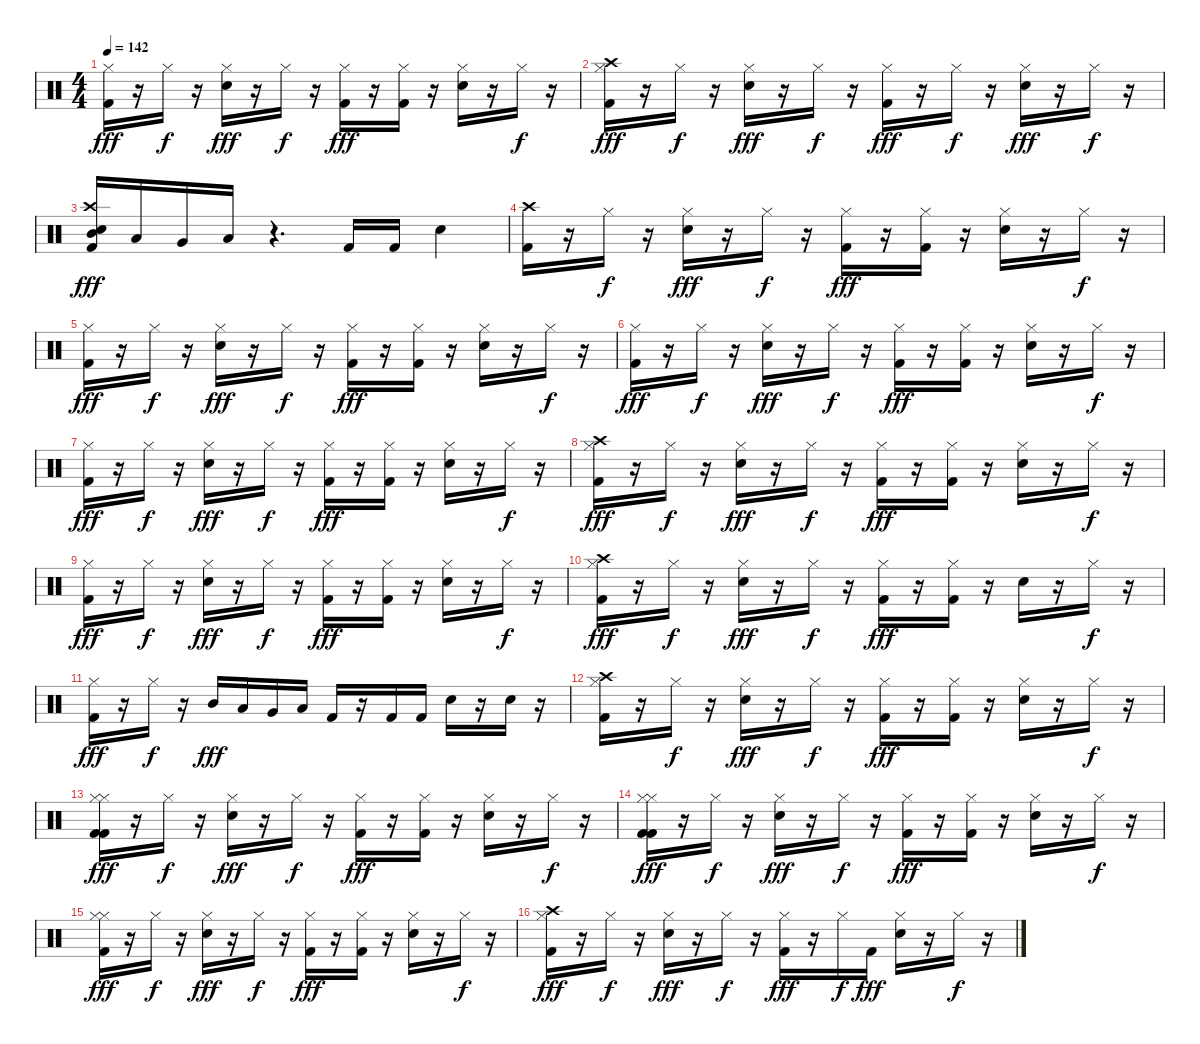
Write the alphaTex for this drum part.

\track "" {instrument percussion}
\staff {score}
\articulation defaults
\ts (4 4)
\tempo 142
\clef neutral
\ks c
("Hi-Hat (closed)" "Kick (hit) 2").16{dy fff} r.16 "Hi-Hat (closed)".16{dy f} r.16 ("Electric Snare (hit)" "Hi-Hat (closed)").16{dy fff} r.16 "Hi-Hat (closed)".16{dy f} r.16 ("Hi-Hat (closed)" "Kick (hit) 2").16{dy fff} r.16 ("Kick (hit) 2" "Hi-Hat (closed)").16 r.16 ("Electric Snare (hit)" "Hi-Hat (closed)").16 r.16 "Hi-Hat (closed)".16{dy f} r.16 |
("Hi-Hat (closed)" "Kick (hit) 2" "Crash high (hit)").16{dy fff} r.16 "Hi-Hat (closed)".16{dy f} r.16 ("Electric Snare (hit)" "Hi-Hat (closed)").16{dy fff} r.16 "Hi-Hat (closed)".16{dy f} r.16 ("Hi-Hat (closed)" "Kick (hit) 2").16{dy fff} r.16 "Hi-Hat (closed)".16{dy f} r.16 ("Electric Snare (hit)" "Hi-Hat (closed)").16{dy fff} r.16 "Hi-Hat (closed)".16{dy f} r.16 |
("Mid Tom (hit)" "Kick (hit) 2" "Crash high (hit)" "Electric Snare (hit)").16{dy fff} "Low Tom (hit)".16 "Very Low Tom (hit)".16 "Low Floor Tom (hit)".16 r.4{d} "Kick (hit) 2".16 "Kick (hit) 2".16 "Electric Snare (hit)".4 |
("Crash high (hit)" "Kick (hit) 2").16 r.16 "Hi-Hat (closed)".16{dy f} r.16 ("Hi-Hat (closed)" "Electric Snare (hit)").16{dy fff} r.16 "Hi-Hat (closed)".16{dy f} r.16 ("Hi-Hat (closed)" "Kick (hit) 2").16{dy fff} r.16 ("Kick (hit) 2" "Hi-Hat (closed)").16 r.16 ("Hi-Hat (closed)" "Electric Snare (hit)").16 r.16 "Hi-Hat (closed)".16{dy f} r.16 |
("Hi-Hat (closed)" "Kick (hit) 2").16{dy fff} r.16 "Hi-Hat (closed)".16{dy f} r.16 ("Hi-Hat (closed)" "Electric Snare (hit)").16{dy fff} r.16 "Hi-Hat (closed)".16{dy f} r.16 ("Hi-Hat (closed)" "Kick (hit) 2").16{dy fff} r.16 ("Hi-Hat (closed)" "Kick (hit) 2").16 r.16 ("Hi-Hat (closed)" "Electric Snare (hit)").16 r.16 "Hi-Hat (closed)".16{dy f} r.16 |
("Hi-Hat (closed)" "Kick (hit) 2").16{dy fff} r.16 "Hi-Hat (closed)".16{dy f} r.16 ("Hi-Hat (closed)" "Electric Snare (hit)").16{dy fff} r.16 "Hi-Hat (closed)".16{dy f} r.16 ("Hi-Hat (closed)" "Kick (hit) 2").16{dy fff} r.16 ("Kick (hit) 2" "Hi-Hat (closed)").16 r.16 ("Hi-Hat (closed)" "Electric Snare (hit)").16 r.16 "Hi-Hat (closed)".16{dy f} r.16 |
("Hi-Hat (closed)" "Kick (hit) 2").16{dy fff} r.16 "Hi-Hat (closed)".16{dy f} r.16 ("Hi-Hat (closed)" "Electric Snare (hit)").16{dy fff} r.16 "Hi-Hat (closed)".16{dy f} r.16 ("Hi-Hat (closed)" "Kick (hit) 2").16{dy fff} r.16 ("Hi-Hat (closed)" "Kick (hit) 2").16 r.16 ("Hi-Hat (closed)" "Electric Snare (hit)").16 r.16 "Hi-Hat (closed)".16{dy f} r.16 |
("Hi-Hat (closed)" "Crash high (hit)" "Kick (hit) 2").16{dy fff} r.16 "Hi-Hat (closed)".16{dy f} r.16 ("Hi-Hat (closed)" "Electric Snare (hit)").16{dy fff} r.16 "Hi-Hat (closed)".16{dy f} r.16 ("Hi-Hat (closed)" "Kick (hit) 2").16{dy fff} r.16 ("Kick (hit) 2" "Hi-Hat (closed)").16 r.16 ("Hi-Hat (closed)" "Electric Snare (hit)").16 r.16 "Hi-Hat (closed)".16{dy f} r.16 |
("Hi-Hat (closed)" "Kick (hit) 2").16{dy fff} r.16 "Hi-Hat (closed)".16{dy f} r.16 ("Hi-Hat (closed)" "Electric Snare (hit)").16{dy fff} r.16 "Hi-Hat (closed)".16{dy f} r.16 ("Hi-Hat (closed)" "Kick (hit) 2").16{dy fff} r.16 ("Hi-Hat (closed)" "Kick (hit) 2").16 r.16 ("Hi-Hat (closed)" "Electric Snare (hit)").16 r.16 "Hi-Hat (closed)".16{dy f} r.16 |
("Hi-Hat (closed)" "Crash high (hit)" "Kick (hit) 2").16{dy fff} r.16 "Hi-Hat (closed)".16{dy f} r.16 ("Hi-Hat (closed)" "Electric Snare (hit)").16{dy fff} r.16 "Hi-Hat (closed)".16{dy f} r.16 ("Hi-Hat (closed)" "Kick (hit) 2").16{dy fff} r.16 ("Kick (hit) 2" "Hi-Hat (closed)").16 r.16 "Electric Snare (hit)".16 r.16 "Hi-Hat (closed)".16{dy f} r.16 |
("Hi-Hat (closed)" "Kick (hit) 2").16{dy fff} r.16 "Hi-Hat (closed)".16{dy f} r.16 "Mid Tom (hit)".16{dy fff balance 0} "Low Tom (hit)".16{balance 5} "Very Low Tom (hit)".16{balance 10} "Low Floor Tom (hit)".16{balance 15} "Kick (hit) 2".16{balance 8} r.16 "Kick (hit) 2".16 "Kick (hit) 2".16 "Electric Snare (hit)".16 r.16 "Electric Snare (hit)".16 r.16 |
("Hi-Hat (closed)" "Kick (hit) 2" "Crash high (hit)").16 r.16 "Hi-Hat (closed)".16{dy f} r.16 ("Hi-Hat (closed)" "Electric Snare (hit)").16{dy fff} r.16 "Hi-Hat (closed)".16{dy f} r.16 ("Hi-Hat (closed)" "Kick (hit) 2").16{dy fff} r.16 ("Hi-Hat (closed)" "Kick (hit) 2").16 r.16 ("Hi-Hat (closed)" "Electric Snare (hit)").16 r.16 "Hi-Hat (closed)".16{dy f} r.16 |
("Hi-Hat (closed)" "Kick (hit) 2" "Hi-Hat (closed)" "Kick (hit) 2").16{dy fff} r.16 "Hi-Hat (closed)".16{dy f} r.16 ("Hi-Hat (closed)" "Electric Snare (hit)").16{dy fff} r.16 "Hi-Hat (closed)".16{dy f} r.16 ("Hi-Hat (closed)" "Kick (hit) 2").16{dy fff} r.16 ("Hi-Hat (closed)" "Kick (hit) 2").16 r.16 ("Hi-Hat (closed)" "Electric Snare (hit)").16 r.16 "Hi-Hat (closed)".16{dy f} r.16 |
("Hi-Hat (closed)" "Kick (hit) 2" "Hi-Hat (closed)" "Kick (hit) 2").16{dy fff} r.16 "Hi-Hat (closed)".16{dy f} r.16 ("Hi-Hat (closed)" "Electric Snare (hit)").16{dy fff} r.16 "Hi-Hat (closed)".16{dy f} r.16 ("Hi-Hat (closed)" "Kick (hit) 2").16{dy fff} r.16 ("Hi-Hat (closed)" "Kick (hit) 2").16 r.16 ("Hi-Hat (closed)" "Electric Snare (hit)").16 r.16 "Hi-Hat (closed)".16{dy f} r.16 |
("Hi-Hat (closed)" "Hi-Hat (closed)" "Kick (hit) 2").16{dy fff} r.16 "Hi-Hat (closed)".16{dy f} r.16 ("Hi-Hat (closed)" "Electric Snare (hit)").16{dy fff} r.16 "Hi-Hat (closed)".16{dy f} r.16 ("Hi-Hat (closed)" "Kick (hit) 2").16{dy fff} r.16 ("Hi-Hat (closed)" "Kick (hit) 2").16 r.16 ("Hi-Hat (closed)" "Electric Snare (hit)").16 r.16 "Hi-Hat (closed)".16{dy f} r.16 |
("Hi-Hat (closed)" "Crash high (hit)" "Kick (hit) 2").16{dy fff} r.16 "Hi-Hat (closed)".16{dy f} r.16 ("Hi-Hat (closed)" "Electric Snare (hit)").16{dy fff} r.16 "Hi-Hat (closed)".16{dy f} r.16 ("Kick (hit) 2" "Hi-Hat (closed)").16{dy fff} r.16 "Hi-Hat (closed)".16{dy f} "Kick (hit) 2".16{dy fff} ("Hi-Hat (closed)" "Electric Snare (hit)").16 r.16 "Hi-Hat (closed)".16{dy f} r.16
